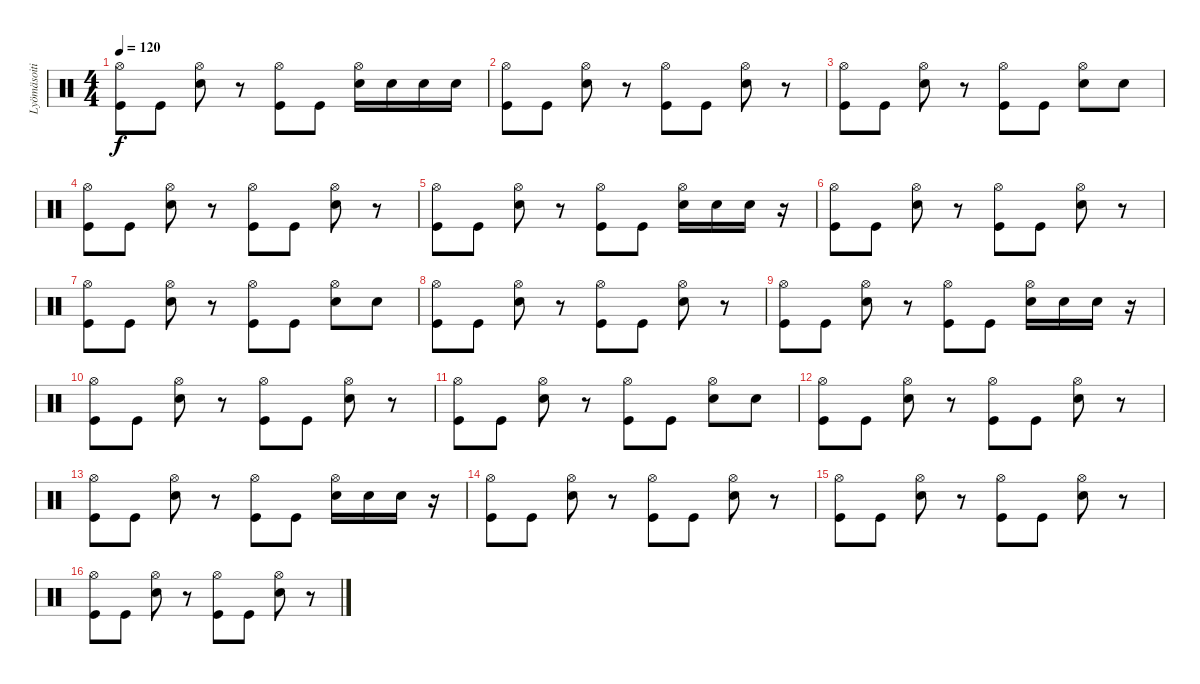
\track ("Lyömäsoitin" "Lyömäsoiti") {instrument percussion}
\staff {score}
\articulation defaults
\ts (4 4)
\tempo 120
\clef neutral
\ks c
("Hi-Hat (open)" "Kick (hit)").8{dy f} "Kick (hit)".8 ("Hi-Hat (open)" "Electric Snare (hit)").8 r.8 ("Hi-Hat (open)" "Kick (hit)").8 "Kick (hit)".8 ("Hi-Hat (open)" "Electric Snare (hit)").16 "Electric Snare (hit)".16 "Electric Snare (hit)".16 "Electric Snare (hit)".16 |
("Hi-Hat (open)" "Kick (hit)").8 "Kick (hit)".8 ("Hi-Hat (open)" "Electric Snare (hit)").8 r.8 ("Hi-Hat (open)" "Kick (hit)").8 "Kick (hit)".8 ("Hi-Hat (open)" "Electric Snare (hit)").8 r.8 |
("Hi-Hat (open)" "Kick (hit)").8 "Kick (hit)".8 ("Hi-Hat (open)" "Electric Snare (hit)").8 r.8 ("Hi-Hat (open)" "Kick (hit)").8 "Kick (hit)".8 ("Hi-Hat (open)" "Electric Snare (hit)").8 "Electric Snare (hit)".8 |
("Hi-Hat (open)" "Kick (hit)").8 "Kick (hit)".8 ("Hi-Hat (open)" "Electric Snare (hit)").8 r.8 ("Hi-Hat (open)" "Kick (hit)").8 "Kick (hit)".8 ("Hi-Hat (open)" "Electric Snare (hit)").8 r.8 |
("Hi-Hat (open)" "Kick (hit)").8 "Kick (hit)".8 ("Hi-Hat (open)" "Electric Snare (hit)").8 r.8 ("Hi-Hat (open)" "Kick (hit)").8 "Kick (hit)".8 ("Hi-Hat (open)" "Electric Snare (hit)").16 "Electric Snare (hit)".16 "Electric Snare (hit)".16 r.16 |
("Hi-Hat (open)" "Kick (hit)").8 "Kick (hit)".8 ("Hi-Hat (open)" "Electric Snare (hit)").8 r.8 ("Hi-Hat (open)" "Kick (hit)").8 "Kick (hit)".8 ("Hi-Hat (open)" "Electric Snare (hit)").8 r.8 |
("Hi-Hat (open)" "Kick (hit)").8 "Kick (hit)".8 ("Hi-Hat (open)" "Electric Snare (hit)").8 r.8 ("Hi-Hat (open)" "Kick (hit)").8 "Kick (hit)".8 ("Hi-Hat (open)" "Electric Snare (hit)").8 "Electric Snare (hit)".8 |
("Hi-Hat (open)" "Kick (hit)").8 "Kick (hit)".8 ("Hi-Hat (open)" "Electric Snare (hit)").8 r.8 ("Hi-Hat (open)" "Kick (hit)").8 "Kick (hit)".8 ("Hi-Hat (open)" "Electric Snare (hit)").8 r.8 |
("Hi-Hat (open)" "Kick (hit)").8 "Kick (hit)".8 ("Hi-Hat (open)" "Electric Snare (hit)").8 r.8 ("Hi-Hat (open)" "Kick (hit)").8 "Kick (hit)".8 ("Hi-Hat (open)" "Electric Snare (hit)").16 "Electric Snare (hit)".16 "Electric Snare (hit)".16 r.16 |
("Hi-Hat (open)" "Kick (hit)").8 "Kick (hit)".8 ("Hi-Hat (open)" "Electric Snare (hit)").8 r.8 ("Hi-Hat (open)" "Kick (hit)").8 "Kick (hit)".8 ("Hi-Hat (open)" "Electric Snare (hit)").8 r.8 |
("Hi-Hat (open)" "Kick (hit)").8 "Kick (hit)".8 ("Hi-Hat (open)" "Electric Snare (hit)").8 r.8 ("Hi-Hat (open)" "Kick (hit)").8 "Kick (hit)".8 ("Hi-Hat (open)" "Electric Snare (hit)").8 "Electric Snare (hit)".8 |
("Hi-Hat (open)" "Kick (hit)").8 "Kick (hit)".8 ("Hi-Hat (open)" "Electric Snare (hit)").8 r.8 ("Hi-Hat (open)" "Kick (hit)").8 "Kick (hit)".8 ("Hi-Hat (open)" "Electric Snare (hit)").8 r.8 |
("Hi-Hat (open)" "Kick (hit)").8 "Kick (hit)".8 ("Hi-Hat (open)" "Electric Snare (hit)").8 r.8 ("Hi-Hat (open)" "Kick (hit)").8 "Kick (hit)".8 ("Hi-Hat (open)" "Electric Snare (hit)").16 "Electric Snare (hit)".16 "Electric Snare (hit)".16 r.16 |
("Hi-Hat (open)" "Kick (hit)").8 "Kick (hit)".8 ("Hi-Hat (open)" "Electric Snare (hit)").8 r.8 ("Hi-Hat (open)" "Kick (hit)").8 "Kick (hit)".8 ("Hi-Hat (open)" "Electric Snare (hit)").8 r.8 |
("Hi-Hat (open)" "Kick (hit)").8 "Kick (hit)".8 ("Hi-Hat (open)" "Electric Snare (hit)").8 r.8 ("Hi-Hat (open)" "Kick (hit)").8 "Kick (hit)".8 ("Hi-Hat (open)" "Electric Snare (hit)").8 r.8 |
("Hi-Hat (open)" "Kick (hit)").8 "Kick (hit)".8 ("Hi-Hat (open)" "Electric Snare (hit)").8 r.8 ("Hi-Hat (open)" "Kick (hit)").8 "Kick (hit)".8 ("Hi-Hat (open)" "Electric Snare (hit)").8 r.8
